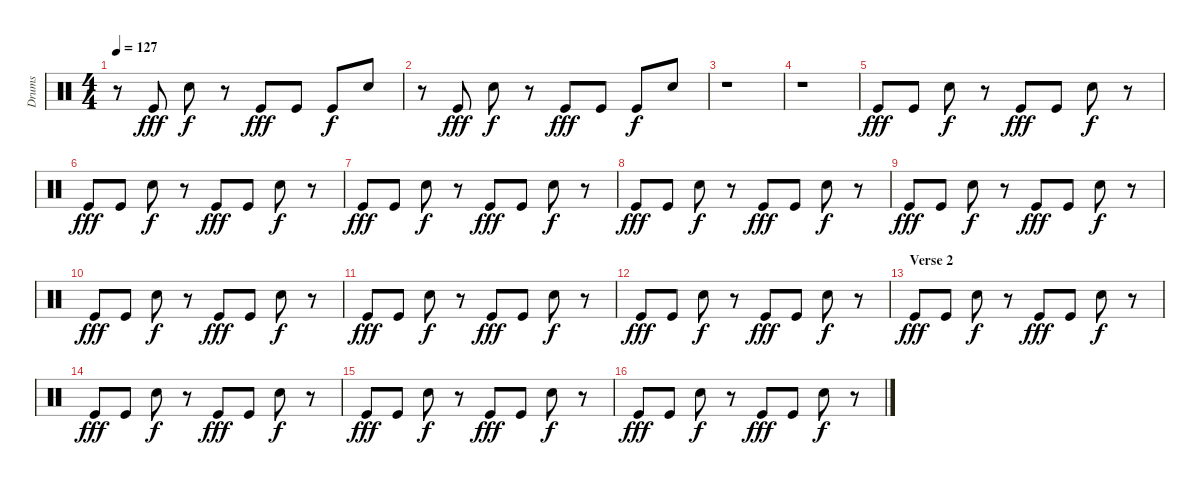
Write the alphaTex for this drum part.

\track ("Drums" "Drums") {instrument percussion}
\staff {score}
\articulation defaults
\ts (4 4)
\tempo 127
\clef neutral
\ks c
r.8{dy f} "Kick (hit)".8{dy fff} "Electric Snare (hit)".8{dy f} r.8 "Kick (hit)".8{dy fff} "Kick (hit)".8 "Kick (hit)".8{dy f} "Electric Snare (hit)".8 |
r.8 "Kick (hit)".8{dy fff} "Electric Snare (hit)".8{dy f} r.8 "Kick (hit)".8{dy fff} "Kick (hit)".8 "Kick (hit)".8{dy f} "Electric Snare (hit)".8 |
r.1 |
r.1 |
"Kick (hit)".8{dy fff} "Kick (hit)".8 "Electric Snare (hit)".8{dy f} r.8 "Kick (hit)".8{dy fff} "Kick (hit)".8 "Electric Snare (hit)".8{dy f} r.8 |
"Kick (hit)".8{dy fff} "Kick (hit)".8 "Electric Snare (hit)".8{dy f} r.8 "Kick (hit)".8{dy fff} "Kick (hit)".8 "Electric Snare (hit)".8{dy f} r.8 |
"Kick (hit)".8{dy fff} "Kick (hit)".8 "Electric Snare (hit)".8{dy f} r.8 "Kick (hit)".8{dy fff} "Kick (hit)".8 "Electric Snare (hit)".8{dy f} r.8 |
"Kick (hit)".8{dy fff} "Kick (hit)".8 "Electric Snare (hit)".8{dy f} r.8 "Kick (hit)".8{dy fff} "Kick (hit)".8 "Electric Snare (hit)".8{dy f} r.8 |
"Kick (hit)".8{dy fff} "Kick (hit)".8 "Electric Snare (hit)".8{dy f} r.8 "Kick (hit)".8{dy fff} "Kick (hit)".8 "Electric Snare (hit)".8{dy f} r.8 |
"Kick (hit)".8{dy fff} "Kick (hit)".8 "Electric Snare (hit)".8{dy f} r.8 "Kick (hit)".8{dy fff} "Kick (hit)".8 "Electric Snare (hit)".8{dy f} r.8 |
"Kick (hit)".8{dy fff} "Kick (hit)".8 "Electric Snare (hit)".8{dy f} r.8 "Kick (hit)".8{dy fff} "Kick (hit)".8 "Electric Snare (hit)".8{dy f} r.8 |
"Kick (hit)".8{dy fff} "Kick (hit)".8 "Electric Snare (hit)".8{dy f} r.8 "Kick (hit)".8{dy fff} "Kick (hit)".8 "Electric Snare (hit)".8{dy f} r.8 |
\section ("" "Verse 2")
"Kick (hit)".8{dy fff} "Kick (hit)".8 "Electric Snare (hit)".8{dy f} r.8 "Kick (hit)".8{dy fff} "Kick (hit)".8 "Electric Snare (hit)".8{dy f} r.8 |
"Kick (hit)".8{dy fff} "Kick (hit)".8 "Electric Snare (hit)".8{dy f} r.8 "Kick (hit)".8{dy fff} "Kick (hit)".8 "Electric Snare (hit)".8{dy f} r.8 |
"Kick (hit)".8{dy fff} "Kick (hit)".8 "Electric Snare (hit)".8{dy f} r.8 "Kick (hit)".8{dy fff} "Kick (hit)".8 "Electric Snare (hit)".8{dy f} r.8 |
"Kick (hit)".8{dy fff} "Kick (hit)".8 "Electric Snare (hit)".8{dy f} r.8 "Kick (hit)".8{dy fff} "Kick (hit)".8 "Electric Snare (hit)".8{dy f} r.8
